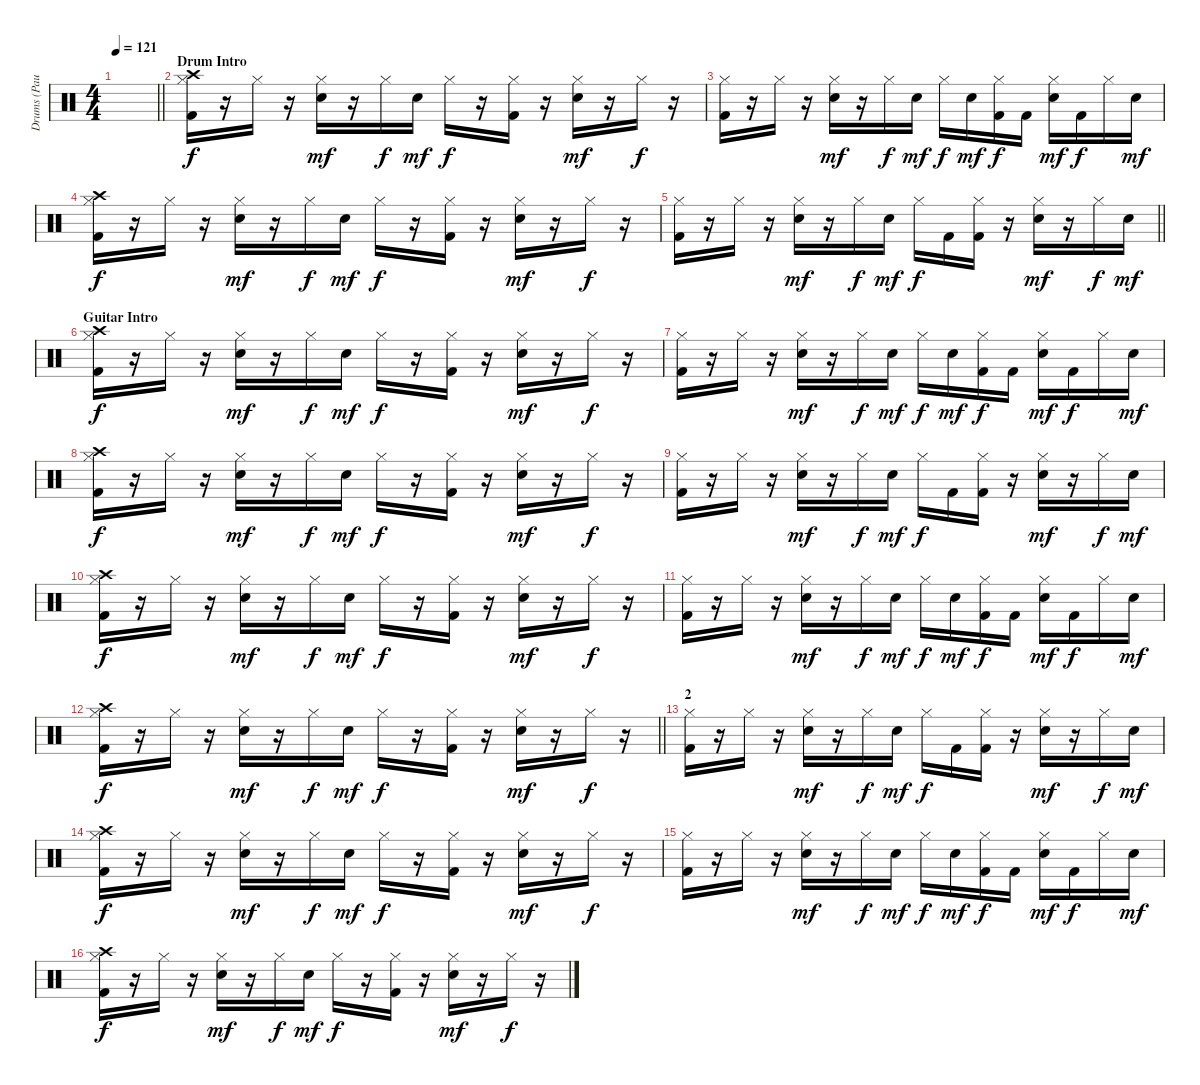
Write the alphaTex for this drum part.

\track ("Drums (Paul)" "Drums (Pau") {instrument percussion}
\staff {score}
\articulation defaults
\ts (4 4)
\tempo 121
\clef neutral
\barLineRight lightlight
\ks c
|
\section ("" "Drum Intro")
("Hi-Hat (closed)" "Crash high (hit)" "Kick (hit) 2").16 r.16 "Hi-Hat (closed)".16 r.16 ("Hi-Hat (closed)" "Snare (hit) 2").16{dy mf} r.16 "Hi-Hat (closed)".16{dy f} "Snare (hit) 2".16{dy mf} "Hi-Hat (closed)".16{dy f} r.16 ("Hi-Hat (closed)" "Kick (hit) 2").16 r.16 ("Hi-Hat (closed)" "Snare (hit) 2").16{dy mf} r.16 "Hi-Hat (closed)".16{dy f} r.16 |
("Hi-Hat (closed)" "Kick (hit) 2").16 r.16 "Hi-Hat (closed)".16 r.16 ("Hi-Hat (closed)" "Snare (hit) 2").16{dy mf} r.16 "Hi-Hat (closed)".16{dy f} "Snare (hit) 2".16{dy mf} "Hi-Hat (closed)".16{dy f} "Snare (hit) 2".16{dy mf} ("Hi-Hat (closed)" "Kick (hit) 2").16{dy f} "Kick (hit) 2".16 ("Hi-Hat (closed)" "Snare (hit) 2").16{dy mf} "Kick (hit) 2".16{dy f} "Hi-Hat (closed)".16 "Snare (hit) 2".16{dy mf} |
("Hi-Hat (closed)" "Crash high (hit)" "Kick (hit) 2").16{dy f} r.16 "Hi-Hat (closed)".16 r.16 ("Hi-Hat (closed)" "Snare (hit) 2").16{dy mf} r.16 "Hi-Hat (closed)".16{dy f} "Snare (hit) 2".16{dy mf} "Hi-Hat (closed)".16{dy f} r.16 ("Hi-Hat (closed)" "Kick (hit) 2").16 r.16 ("Hi-Hat (closed)" "Snare (hit) 2").16{dy mf} r.16 "Hi-Hat (closed)".16{dy f} r.16 |
\barLineRight lightlight
("Hi-Hat (closed)" "Kick (hit) 2").16 r.16 "Hi-Hat (closed)".16 r.16 ("Hi-Hat (closed)" "Snare (hit) 2").16{dy mf} r.16 "Hi-Hat (closed)".16{dy f} "Snare (hit) 2".16{dy mf} "Hi-Hat (closed)".16{dy f} "Kick (hit) 2".16 ("Hi-Hat (closed)" "Kick (hit) 2").16 r.16 ("Hi-Hat (closed)" "Snare (hit) 2").16{dy mf} r.16 "Hi-Hat (closed)".16{dy f} "Snare (hit) 2".16{dy mf} |
\section ("" "Guitar Intro")
("Hi-Hat (closed)" "Crash high (hit)" "Kick (hit) 2").16{dy f} r.16 "Hi-Hat (closed)".16 r.16 ("Hi-Hat (closed)" "Snare (hit) 2").16{dy mf} r.16 "Hi-Hat (closed)".16{dy f} "Snare (hit) 2".16{dy mf} "Hi-Hat (closed)".16{dy f} r.16 ("Hi-Hat (closed)" "Kick (hit) 2").16 r.16 ("Hi-Hat (closed)" "Snare (hit) 2").16{dy mf} r.16 "Hi-Hat (closed)".16{dy f} r.16 |
("Hi-Hat (closed)" "Kick (hit) 2").16 r.16 "Hi-Hat (closed)".16 r.16 ("Hi-Hat (closed)" "Snare (hit) 2").16{dy mf} r.16 "Hi-Hat (closed)".16{dy f} "Snare (hit) 2".16{dy mf} "Hi-Hat (closed)".16{dy f} "Snare (hit) 2".16{dy mf} ("Hi-Hat (closed)" "Kick (hit) 2").16{dy f} "Kick (hit) 2".16 ("Hi-Hat (closed)" "Snare (hit) 2").16{dy mf} "Kick (hit) 2".16{dy f} "Hi-Hat (closed)".16 "Snare (hit) 2".16{dy mf} |
("Hi-Hat (closed)" "Crash high (hit)" "Kick (hit) 2").16{dy f} r.16 "Hi-Hat (closed)".16 r.16 ("Hi-Hat (closed)" "Snare (hit) 2").16{dy mf} r.16 "Hi-Hat (closed)".16{dy f} "Snare (hit) 2".16{dy mf} "Hi-Hat (closed)".16{dy f} r.16 ("Hi-Hat (closed)" "Kick (hit) 2").16 r.16 ("Hi-Hat (closed)" "Snare (hit) 2").16{dy mf} r.16 "Hi-Hat (closed)".16{dy f} r.16 |
("Hi-Hat (closed)" "Kick (hit) 2").16 r.16 "Hi-Hat (closed)".16 r.16 ("Hi-Hat (closed)" "Snare (hit) 2").16{dy mf} r.16 "Hi-Hat (closed)".16{dy f} "Snare (hit) 2".16{dy mf} "Hi-Hat (closed)".16{dy f} "Kick (hit) 2".16 ("Hi-Hat (closed)" "Kick (hit) 2").16 r.16 ("Hi-Hat (closed)" "Snare (hit) 2").16{dy mf} r.16 "Hi-Hat (closed)".16{dy f} "Snare (hit) 2".16{dy mf} |
("Hi-Hat (closed)" "Crash high (hit)" "Kick (hit) 2").16{dy f} r.16 "Hi-Hat (closed)".16 r.16 ("Hi-Hat (closed)" "Snare (hit) 2").16{dy mf} r.16 "Hi-Hat (closed)".16{dy f} "Snare (hit) 2".16{dy mf} "Hi-Hat (closed)".16{dy f} r.16 ("Hi-Hat (closed)" "Kick (hit) 2").16 r.16 ("Hi-Hat (closed)" "Snare (hit) 2").16{dy mf} r.16 "Hi-Hat (closed)".16{dy f} r.16 |
("Hi-Hat (closed)" "Kick (hit) 2").16 r.16 "Hi-Hat (closed)".16 r.16 ("Hi-Hat (closed)" "Snare (hit) 2").16{dy mf} r.16 "Hi-Hat (closed)".16{dy f} "Snare (hit) 2".16{dy mf} "Hi-Hat (closed)".16{dy f} "Snare (hit) 2".16{dy mf} ("Hi-Hat (closed)" "Kick (hit) 2").16{dy f} "Kick (hit) 2".16 ("Hi-Hat (closed)" "Snare (hit) 2").16{dy mf} "Kick (hit) 2".16{dy f} "Hi-Hat (closed)".16 "Snare (hit) 2".16{dy mf} |
\barLineRight lightlight
("Hi-Hat (closed)" "Crash high (hit)" "Kick (hit) 2").16{dy f} r.16 "Hi-Hat (closed)".16 r.16 ("Hi-Hat (closed)" "Snare (hit) 2").16{dy mf} r.16 "Hi-Hat (closed)".16{dy f} "Snare (hit) 2".16{dy mf} "Hi-Hat (closed)".16{dy f} r.16 ("Hi-Hat (closed)" "Kick (hit) 2").16 r.16 ("Hi-Hat (closed)" "Snare (hit) 2").16{dy mf} r.16 "Hi-Hat (closed)".16{dy f} r.16 |
\section ("" "2")
("Hi-Hat (closed)" "Kick (hit) 2").16 r.16 "Hi-Hat (closed)".16 r.16 ("Hi-Hat (closed)" "Snare (hit) 2").16{dy mf} r.16 "Hi-Hat (closed)".16{dy f} "Snare (hit) 2".16{dy mf} "Hi-Hat (closed)".16{dy f} "Kick (hit) 2".16 ("Hi-Hat (closed)" "Kick (hit) 2").16 r.16 ("Hi-Hat (closed)" "Snare (hit) 2").16{dy mf} r.16 "Hi-Hat (closed)".16{dy f} "Snare (hit) 2".16{dy mf} |
("Hi-Hat (closed)" "Crash high (hit)" "Kick (hit) 2").16{dy f} r.16 "Hi-Hat (closed)".16 r.16 ("Hi-Hat (closed)" "Snare (hit) 2").16{dy mf} r.16 "Hi-Hat (closed)".16{dy f} "Snare (hit) 2".16{dy mf} "Hi-Hat (closed)".16{dy f} r.16 ("Hi-Hat (closed)" "Kick (hit) 2").16 r.16 ("Hi-Hat (closed)" "Snare (hit) 2").16{dy mf} r.16 "Hi-Hat (closed)".16{dy f} r.16 |
("Hi-Hat (closed)" "Kick (hit) 2").16 r.16 "Hi-Hat (closed)".16 r.16 ("Hi-Hat (closed)" "Snare (hit) 2").16{dy mf} r.16 "Hi-Hat (closed)".16{dy f} "Snare (hit) 2".16{dy mf} "Hi-Hat (closed)".16{dy f} "Snare (hit) 2".16{dy mf} ("Hi-Hat (closed)" "Kick (hit) 2").16{dy f} "Kick (hit) 2".16 ("Hi-Hat (closed)" "Snare (hit) 2").16{dy mf} "Kick (hit) 2".16{dy f} "Hi-Hat (closed)".16 "Snare (hit) 2".16{dy mf} |
("Hi-Hat (closed)" "Crash high (hit)" "Kick (hit) 2").16{dy f} r.16 "Hi-Hat (closed)".16 r.16 ("Hi-Hat (closed)" "Snare (hit) 2").16{dy mf} r.16 "Hi-Hat (closed)".16{dy f} "Snare (hit) 2".16{dy mf} "Hi-Hat (closed)".16{dy f} r.16 ("Hi-Hat (closed)" "Kick (hit) 2").16 r.16 ("Hi-Hat (closed)" "Snare (hit) 2").16{dy mf} r.16 "Hi-Hat (closed)".16{dy f} r.16
